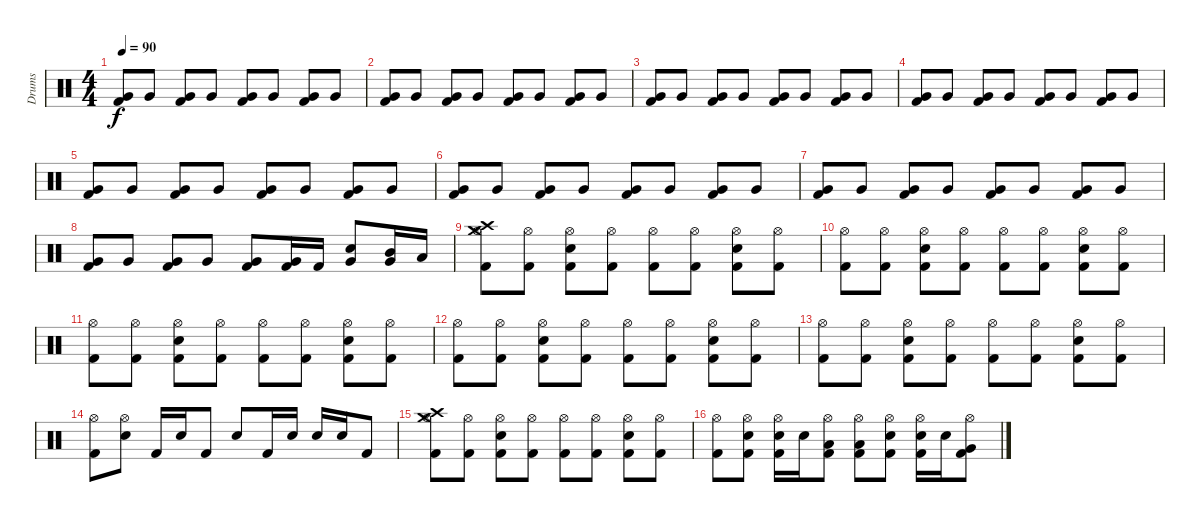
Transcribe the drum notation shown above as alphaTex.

\track ("Drums" "Drums") {instrument percussion}
\staff {score}
\articulation defaults
\ts (4 4)
\tempo 90
\clef neutral
\ks c
("Kick (hit) 2" "Very Low Tom (hit)").8{dy f} "Very Low Tom (hit)".8 ("Kick (hit) 2" "Very Low Tom (hit)").8 "Very Low Tom (hit)".8 ("Kick (hit) 2" "Very Low Tom (hit)").8 "Very Low Tom (hit)".8 ("Very Low Tom (hit)" "Kick (hit) 2").8 "Very Low Tom (hit)".8 |
("Kick (hit) 2" "Very Low Tom (hit)").8 "Very Low Tom (hit)".8 ("Kick (hit) 2" "Very Low Tom (hit)").8 "Very Low Tom (hit)".8 ("Kick (hit) 2" "Very Low Tom (hit)").8 "Very Low Tom (hit)".8 ("Kick (hit) 2" "Very Low Tom (hit)").8 "Very Low Tom (hit)".8 |
("Kick (hit) 2" "Very Low Tom (hit)").8 "Very Low Tom (hit)".8 ("Kick (hit) 2" "Very Low Tom (hit)").8 "Very Low Tom (hit)".8 ("Kick (hit) 2" "Very Low Tom (hit)").8 "Very Low Tom (hit)".8 ("Very Low Tom (hit)" "Kick (hit) 2").8 "Very Low Tom (hit)".8 |
("Kick (hit) 2" "Very Low Tom (hit)").8 "Very Low Tom (hit)".8 ("Kick (hit) 2" "Very Low Tom (hit)").8 "Very Low Tom (hit)".8 ("Kick (hit) 2" "Very Low Tom (hit)").8 "Very Low Tom (hit)".8 ("Kick (hit) 2" "Very Low Tom (hit)").8 "Very Low Tom (hit)".8 |
("Kick (hit) 2" "Very Low Tom (hit)").8 "Very Low Tom (hit)".8 ("Kick (hit) 2" "Very Low Tom (hit)").8 "Very Low Tom (hit)".8 ("Kick (hit) 2" "Very Low Tom (hit)").8 "Very Low Tom (hit)".8 ("Very Low Tom (hit)" "Kick (hit) 2").8 "Very Low Tom (hit)".8 |
("Kick (hit) 2" "Very Low Tom (hit)").8 "Very Low Tom (hit)".8 ("Kick (hit) 2" "Very Low Tom (hit)").8 "Very Low Tom (hit)".8 ("Kick (hit) 2" "Very Low Tom (hit)").8 "Very Low Tom (hit)".8 ("Kick (hit) 2" "Very Low Tom (hit)").8 "Very Low Tom (hit)".8 |
("Kick (hit) 2" "Very Low Tom (hit)").8 "Very Low Tom (hit)".8 ("Kick (hit) 2" "Very Low Tom (hit)").8 "Very Low Tom (hit)".8 ("Kick (hit) 2" "Very Low Tom (hit)").8 "Very Low Tom (hit)".8 ("Very Low Tom (hit)" "Kick (hit) 2").8 "Very Low Tom (hit)".8 |
("Kick (hit) 2" "Very Low Tom (hit)").8 "Very Low Tom (hit)".8 ("Kick (hit) 2" "Very Low Tom (hit)").8 "Very Low Tom (hit)".8 ("Kick (hit) 2" "Very Low Tom (hit)").8 ("Kick (hit) 2" "Very Low Tom (hit)").16 "Kick (hit) 2".16 ("Snare (hit) 2" "Very Low Tom (hit)").8 ("Mid Tom (hit)" "Very Low Tom (hit)").16 "Low Tom (hit)".16 |
("Crash medium (hit)" "Crash high (hit)" "Kick (hit) 2" "Hi-Hat (open)").8 ("Kick (hit) 2" "Hi-Hat (open)").8 ("Kick (hit) 2" "Snare (hit) 2" "Hi-Hat (open)").8 ("Hi-Hat (open)" "Kick (hit) 2").8 ("Hi-Hat (open)" "Kick (hit) 2").8 ("Kick (hit) 2" "Hi-Hat (open)").8 ("Snare (hit) 2" "Kick (hit) 2" "Hi-Hat (open)").8 ("Hi-Hat (open)" "Kick (hit) 2").8 |
("Hi-Hat (open)" "Kick (hit) 2").8 ("Kick (hit) 2" "Hi-Hat (open)").8 ("Kick (hit) 2" "Snare (hit) 2" "Hi-Hat (open)").8 ("Hi-Hat (open)" "Kick (hit) 2").8 ("Hi-Hat (open)" "Kick (hit) 2").8 ("Kick (hit) 2" "Hi-Hat (open)").8 ("Kick (hit) 2" "Snare (hit) 2" "Hi-Hat (open)").8 ("Kick (hit) 2" "Hi-Hat (open)").8 |
("Kick (hit) 2" "Hi-Hat (open)").8 ("Kick (hit) 2" "Hi-Hat (open)").8 ("Kick (hit) 2" "Snare (hit) 2" "Hi-Hat (open)").8 ("Kick (hit) 2" "Hi-Hat (open)").8 ("Hi-Hat (open)" "Kick (hit) 2").8 ("Kick (hit) 2" "Hi-Hat (open)").8 ("Kick (hit) 2" "Hi-Hat (open)" "Snare (hit) 2").8 ("Hi-Hat (open)" "Kick (hit) 2").8 |
("Kick (hit) 2" "Hi-Hat (open)").8 ("Kick (hit) 2" "Hi-Hat (open)").8 ("Hi-Hat (open)" "Kick (hit) 2" "Snare (hit) 2").8 ("Hi-Hat (open)" "Kick (hit) 2").8 ("Hi-Hat (open)" "Kick (hit) 2").8 ("Kick (hit) 2" "Hi-Hat (open)").8 ("Hi-Hat (open)" "Kick (hit) 2" "Snare (hit) 2").8 ("Hi-Hat (open)" "Kick (hit) 2").8 |
("Hi-Hat (open)" "Kick (hit) 2").8 ("Kick (hit) 2" "Hi-Hat (open)").8 ("Kick (hit) 2" "Hi-Hat (open)" "Snare (hit) 2").8 ("Hi-Hat (open)" "Kick (hit) 2").8 ("Hi-Hat (open)" "Kick (hit) 2").8 ("Kick (hit) 2" "Hi-Hat (open)").8 ("Hi-Hat (open)" "Kick (hit) 2" "Snare (hit) 2").8 ("Hi-Hat (open)" "Kick (hit) 2").8 |
("Kick (hit) 2" "Hi-Hat (open)").8 ("Snare (hit) 2" "Hi-Hat (open)").8 "Kick (hit) 2".16 "Snare (hit) 2".16 "Kick (hit) 2".8 "Snare (hit) 2".8 "Kick (hit) 2".16 "Snare (hit) 2".16 "Snare (hit) 2".16 "Snare (hit) 2".16 "Kick (hit) 2".8 |
("Crash high (hit)" "Crash medium (hit)" "Hi-Hat (open)" "Kick (hit) 2").8 ("Hi-Hat (open)" "Kick (hit) 2").8 ("Hi-Hat (open)" "Kick (hit) 2" "Snare (hit) 2").8 ("Hi-Hat (open)" "Kick (hit) 2").8 ("Hi-Hat (open)" "Kick (hit) 2").8 ("Hi-Hat (open)" "Kick (hit) 2").8 ("Kick (hit) 2" "Hi-Hat (open)" "Snare (hit) 2").8 ("Hi-Hat (open)" "Kick (hit) 2").8 |
("Hi-Hat (open)" "Kick (hit) 2").8 ("Snare (hit) 2" "Kick (hit) 2" "Hi-Hat (open)").8 ("Hi-Hat (open)" "Kick (hit) 2" "Snare (hit) 2").16 "Snare (hit) 2".16 ("Low Tom (hit)" "Hi-Hat (open)" "Kick (hit) 2").8 ("Low Tom (hit)" "Hi-Hat (open)" "Kick (hit) 2").8 ("Snare (hit) 2" "Hi-Hat (open)" "Kick (hit) 2").8 ("Hi-Hat (open)" "Kick (hit) 2" "Snare (hit) 2").16 "Snare (hit) 2".16 ("Very Low Tom (hit)" "Kick (hit) 2" "Hi-Hat (open)").8
